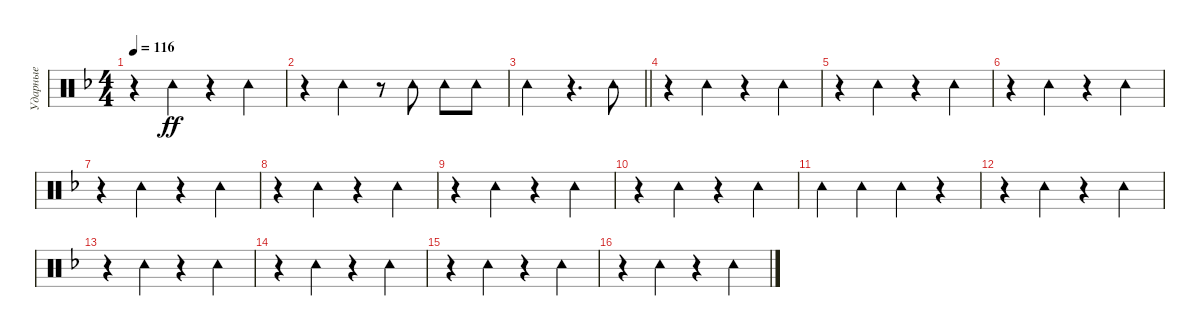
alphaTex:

\track ("Ударные" "Ударные") {instrument percussion}
\staff {score}
\articulation defaults
\ts (4 4)
\tempo 116
\clef neutral
\ks dminor
r.4{dy ff} "Tambourine (hit)".4 r.4 "Tambourine (hit)".4 |
r.4 "Tambourine (hit)".4 r.8 "Tambourine (hit)".8 "Tambourine (hit)".8 "Tambourine (hit)".8 |
\barLineRight lightlight "Tambourine (hit)".2
r.4{d} "Tambourine (hit)".8 |
r.4 "Tambourine (hit)".4 r.4 "Tambourine (hit)".4 |
r.4 "Tambourine (hit)".4 r.4 "Tambourine (hit)".4 |
r.4 "Tambourine (hit)".4 r.4 "Tambourine (hit)".4 |
r.4 "Tambourine (hit)".4 r.4 "Tambourine (hit)".4 |
r.4 "Tambourine (hit)".4 r.4 "Tambourine (hit)".4 |
r.4 "Tambourine (hit)".4 r.4 "Tambourine (hit)".4 |
r.4 "Tambourine (hit)".4 r.4 "Tambourine (hit)".4 |
"Tambourine (hit)".4 "Tambourine (hit)".4 "Tambourine (hit)".4 r.4 |
r.4 "Tambourine (hit)".4 r.4 "Tambourine (hit)".4 |
r.4 "Tambourine (hit)".4 r.4 "Tambourine (hit)".4 |
r.4 "Tambourine (hit)".4 r.4 "Tambourine (hit)".4 |
r.4 "Tambourine (hit)".4 r.4 "Tambourine (hit)".4 |
r.4 "Tambourine (hit)".4 r.4 "Tambourine (hit)".4
